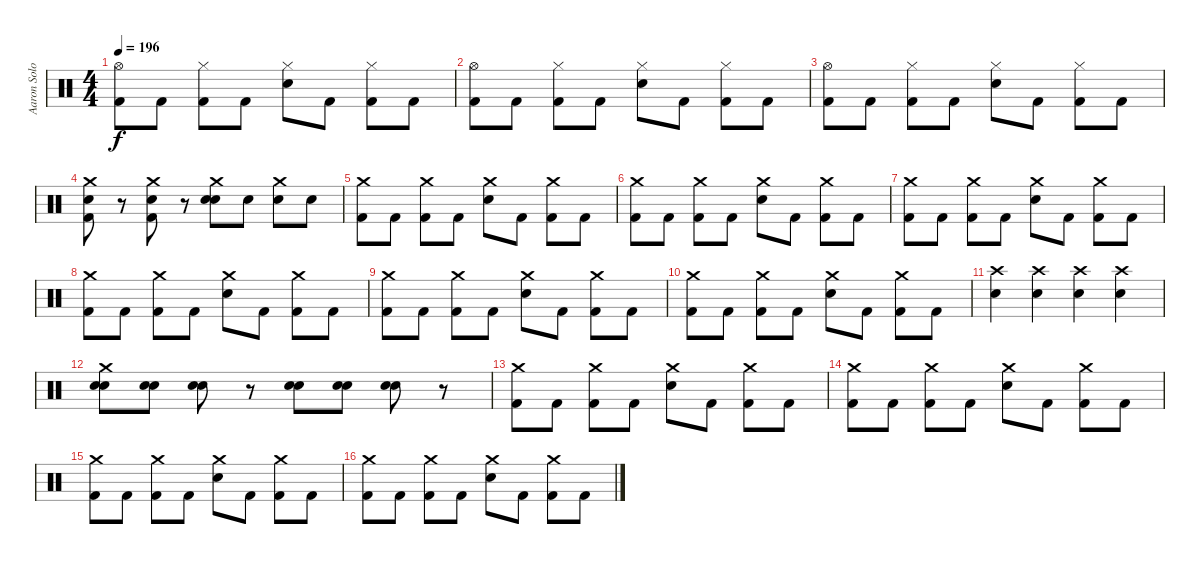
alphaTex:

\track ("Aaron Solowoniuk" "Aaron Solo") {instrument percussion}
\staff {score}
\articulation defaults
\ts (4 4)
\tempo 196
\clef neutral
\ks c
("Hi-Hat (open)" "Kick (hit) 2").8{dy f} "Kick (hit) 2".8 ("Hi-Hat (closed)" "Kick (hit) 2").8 "Kick (hit) 2".8 ("Hi-Hat (closed)" "Electric Snare (hit)").8 "Kick (hit) 2".8 ("Hi-Hat (closed)" "Kick (hit) 2").8 "Kick (hit) 2".8 |
("Hi-Hat (open)" "Kick (hit) 2").8 "Kick (hit) 2".8 ("Hi-Hat (closed)" "Kick (hit) 2").8 "Kick (hit) 2".8 ("Hi-Hat (closed)" "Electric Snare (hit)").8 "Kick (hit) 2".8 ("Hi-Hat (closed)" "Kick (hit) 2").8 "Kick (hit) 2".8 |
("Hi-Hat (open)" "Kick (hit) 2").8 "Kick (hit) 2".8 ("Hi-Hat (closed)" "Kick (hit) 2").8 "Kick (hit) 2".8 ("Hi-Hat (closed)" "Electric Snare (hit)").8 "Kick (hit) 2".8 ("Hi-Hat (closed)" "Kick (hit) 2").8 "Kick (hit) 2".8 |
("Crash medium (hit)" "Kick (hit) 2" "Electric Snare (hit)").8 r.8 ("Crash medium (hit)" "Kick (hit) 2" "Electric Snare (hit)").8 r.8 ("Crash medium (hit)" "Electric Snare (hit)" "Electric Snare (hit)").8 "Electric Snare (hit)".8 ("Crash medium (hit)" "Electric Snare (hit)").8 "Electric Snare (hit)".8 |
("Crash medium (hit)" "Kick (hit) 2").8 "Kick (hit) 2".8 ("Crash medium (hit)" "Kick (hit) 2").8 "Kick (hit) 2".8 ("Crash medium (hit)" "Electric Snare (hit)").8 "Kick (hit) 2".8 ("Crash medium (hit)" "Kick (hit) 2").8 "Kick (hit) 2".8 |
("Crash medium (hit)" "Kick (hit) 2").8 "Kick (hit) 2".8 ("Crash medium (hit)" "Kick (hit) 2").8 "Kick (hit) 2".8 ("Crash medium (hit)" "Electric Snare (hit)").8 "Kick (hit) 2".8 ("Crash medium (hit)" "Kick (hit) 2").8 "Kick (hit) 2".8 |
("Crash medium (hit)" "Kick (hit) 2").8 "Kick (hit) 2".8 ("Crash medium (hit)" "Kick (hit) 2").8 "Kick (hit) 2".8 ("Crash medium (hit)" "Electric Snare (hit)").8 "Kick (hit) 2".8 ("Crash medium (hit)" "Kick (hit) 2").8 "Kick (hit) 2".8 |
("Crash medium (hit)" "Kick (hit) 2").8 "Kick (hit) 2".8 ("Crash medium (hit)" "Kick (hit) 2").8 "Kick (hit) 2".8 ("Crash medium (hit)" "Electric Snare (hit)").8 "Kick (hit) 2".8 ("Crash medium (hit)" "Kick (hit) 2").8 "Kick (hit) 2".8 |
("Crash medium (hit)" "Kick (hit) 2").8 "Kick (hit) 2".8 ("Crash medium (hit)" "Kick (hit) 2").8 "Kick (hit) 2".8 ("Crash medium (hit)" "Electric Snare (hit)").8 "Kick (hit) 2".8 ("Crash medium (hit)" "Kick (hit) 2").8 "Kick (hit) 2".8 |
("Crash medium (hit)" "Kick (hit) 2").8 "Kick (hit) 2".8 ("Crash medium (hit)" "Kick (hit) 2").8 "Kick (hit) 2".8 ("Crash medium (hit)" "Electric Snare (hit)").8 "Kick (hit) 2".8 ("Crash medium (hit)" "Kick (hit) 2").8 "Kick (hit) 2".8 |
("Crash high (hit)" "Electric Snare (hit)").4 ("Crash high (hit)" "Electric Snare (hit)").4 ("Crash high (hit)" "Electric Snare (hit)").4 ("Crash high (hit)" "Electric Snare (hit)").4 |
("Crash medium (hit)" "Electric Snare (hit)" "Electric Snare (hit)").8 ("Electric Snare (hit)" "Electric Snare (hit)").8 ("Electric Snare (hit)" "Electric Snare (hit)").8 r.8 ("Electric Snare (hit)" "Electric Snare (hit)").8 ("Electric Snare (hit)" "Electric Snare (hit)").8 ("Electric Snare (hit)" "Electric Snare (hit)").8 r.8 |
("Crash medium (hit)" "Kick (hit) 2").8 "Kick (hit) 2".8 ("Crash medium (hit)" "Kick (hit) 2").8 "Kick (hit) 2".8 ("Crash medium (hit)" "Electric Snare (hit)").8 "Kick (hit) 2".8 ("Crash medium (hit)" "Kick (hit) 2").8 "Kick (hit) 2".8 |
("Crash medium (hit)" "Kick (hit) 2").8 "Kick (hit) 2".8 ("Crash medium (hit)" "Kick (hit) 2").8 "Kick (hit) 2".8 ("Crash medium (hit)" "Electric Snare (hit)").8 "Kick (hit) 2".8 ("Crash medium (hit)" "Kick (hit) 2").8 "Kick (hit) 2".8 |
("Crash medium (hit)" "Kick (hit) 2").8 "Kick (hit) 2".8 ("Crash medium (hit)" "Kick (hit) 2").8 "Kick (hit) 2".8 ("Crash medium (hit)" "Electric Snare (hit)").8 "Kick (hit) 2".8 ("Crash medium (hit)" "Kick (hit) 2").8 "Kick (hit) 2".8 |
("Crash medium (hit)" "Kick (hit) 2").8 "Kick (hit) 2".8 ("Crash medium (hit)" "Kick (hit) 2").8 "Kick (hit) 2".8 ("Crash medium (hit)" "Electric Snare (hit)").8 "Kick (hit) 2".8 ("Crash medium (hit)" "Kick (hit) 2").8 "Kick (hit) 2".8
